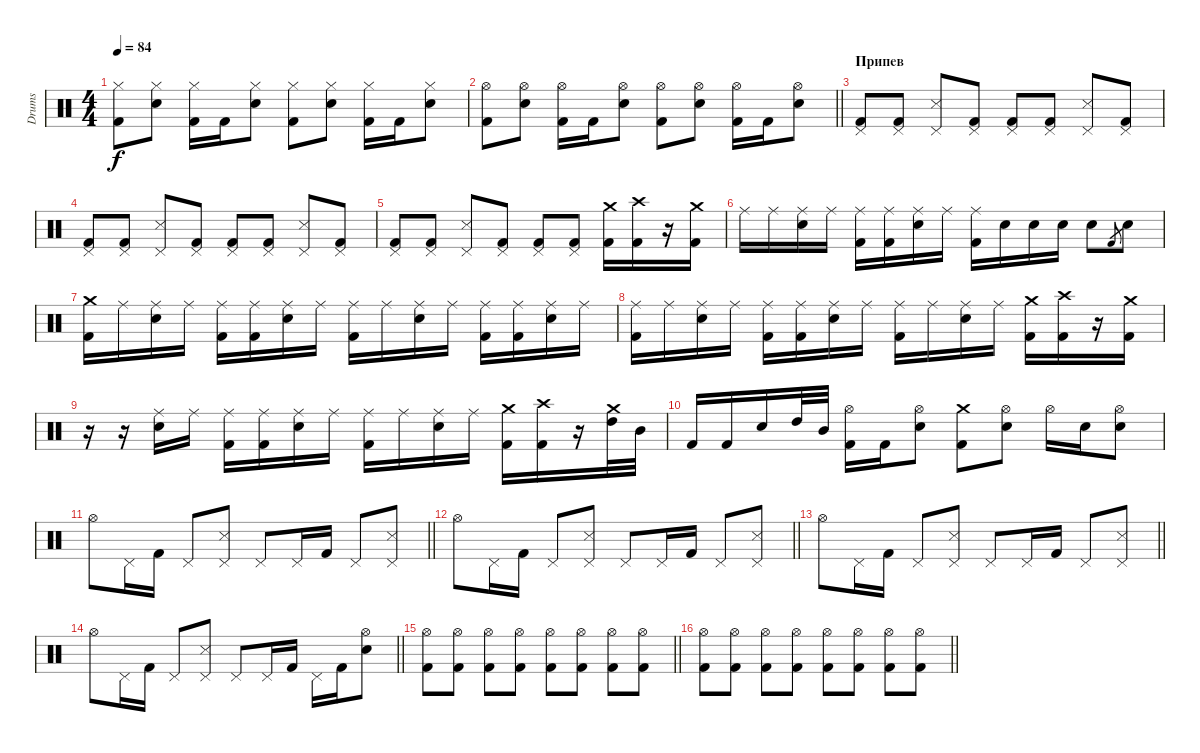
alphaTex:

\track ("Drums" "Drums") {instrument percussion}
\staff {score}
\articulation defaults
\ts (4 4)
\tempo 84
\clef neutral
\ks c
("Hi-Hat (closed)" "Kick (hit) 2").8{dy f} ("Hi-Hat (closed)" "Snare (hit) 2").8 ("Hi-Hat (closed)" "Kick (hit) 2").16 "Kick (hit) 2".16 ("Hi-Hat (closed)" "Snare (hit) 2").8 ("Hi-Hat (closed)" "Kick (hit) 2").8 ("Hi-Hat (closed)" "Snare (hit) 2").8 ("Hi-Hat (closed)" "Kick (hit) 2").16 "Kick (hit) 2".16 ("Hi-Hat (closed)" "Snare (hit) 2").8 |
\barLineRight lightlight
("Hi-Hat (open)" "Kick (hit) 2").8 ("Hi-Hat (open)" "Snare (hit) 2").8 ("Hi-Hat (open)" "Kick (hit) 2").16 "Kick (hit) 2".16 ("Hi-Hat (open)" "Snare (hit) 2").8 ("Hi-Hat (open)" "Kick (hit) 2").8 ("Hi-Hat (open)" "Snare (hit) 2").8 ("Hi-Hat (open)" "Kick (hit) 2").16 "Kick (hit) 2".16 ("Hi-Hat (open)" "Snare (hit) 2").8 |
\section ("" "Припев")
("Pedal Hi-Hat (hit)" "Kick (hit) 2").8 ("Pedal Hi-Hat (hit)" "Kick (hit) 2").8 ("Pedal Hi-Hat (hit)" "Snare (side stick) 3").8 ("Pedal Hi-Hat (hit)" "Kick (hit) 2").8 ("Pedal Hi-Hat (hit)" "Kick (hit) 2").8 ("Pedal Hi-Hat (hit)" "Kick (hit) 2").8 ("Pedal Hi-Hat (hit)" "Snare (side stick) 3").8 ("Pedal Hi-Hat (hit)" "Kick (hit) 2").8 |
("Pedal Hi-Hat (hit)" "Kick (hit) 2").8 ("Pedal Hi-Hat (hit)" "Kick (hit) 2").8 ("Pedal Hi-Hat (hit)" "Snare (side stick) 3").8 ("Pedal Hi-Hat (hit)" "Kick (hit) 2").8 ("Pedal Hi-Hat (hit)" "Kick (hit) 2").8 ("Pedal Hi-Hat (hit)" "Kick (hit) 2").8 ("Pedal Hi-Hat (hit)" "Snare (side stick) 3").8 ("Pedal Hi-Hat (hit)" "Kick (hit) 2").8 |
("Pedal Hi-Hat (hit)" "Kick (hit) 2").8 ("Pedal Hi-Hat (hit)" "Kick (hit) 2").8 ("Pedal Hi-Hat (hit)" "Snare (side stick) 3").8 ("Pedal Hi-Hat (hit)" "Kick (hit) 2").8 ("Pedal Hi-Hat (hit)" "Kick (hit) 2").8 ("Pedal Hi-Hat (hit)" "Kick (hit) 2").8 ("Crash medium (hit)" "Kick (hit) 2").16 ("Crash high (hit)" "Kick (hit) 2").16 r.16 ("Crash medium (hit)" "Kick (hit) 2").16 |
"Ride (middle)".16 "Ride (middle)".16 ("Ride (middle)" "Snare (hit) 2").16 "Ride (middle)".16 ("Ride (middle)" "Kick (hit) 2").16 ("Ride (middle)" "Kick (hit) 2").16 ("Ride (middle)" "Snare (hit) 2").16 "Ride (middle)".16 ("Ride (middle)" "Kick (hit) 2").16 "Snare (hit) 2".16 "Snare (hit) 2".16 "Snare (hit) 2".16 "Snare (hit) 2".8 "Kick (hit) 2".8{gr} "Snare (hit) 2".8 |
("Crash medium (hit)" "Kick (hit) 2").16 "Ride (middle)".16 ("Ride (middle)" "Snare (hit) 2").16 "Ride (middle)".16 ("Ride (middle)" "Kick (hit) 2").16 ("Ride (middle)" "Kick (hit) 2").16 ("Ride (middle)" "Snare (hit) 2").16 "Ride (middle)".16 ("Ride (middle)" "Kick (hit) 2").16 "Ride (middle)".16 ("Ride (middle)" "Snare (hit) 2").16 "Ride (middle)".16 ("Ride (middle)" "Kick (hit) 2").16 ("Ride (middle)" "Kick (hit) 2").16 ("Ride (middle)" "Snare (hit) 2").16 "Ride (middle)".16 |
("Ride (middle)" "Kick (hit) 2").16 "Ride (middle)".16 ("Ride (middle)" "Snare (hit) 2").16 "Ride (middle)".16 ("Ride (middle)" "Kick (hit) 2").16 ("Ride (middle)" "Kick (hit) 2").16 ("Ride (middle)" "Snare (hit) 2").16 "Ride (middle)".16 ("Ride (middle)" "Kick (hit) 2").16 "Ride (middle)".16 ("Ride (middle)" "Snare (hit) 2").16 "Ride (middle)".16 ("Crash medium (hit)" "Kick (hit) 2").16 ("Crash high (hit)" "Kick (hit) 2").16 r.16 ("Crash medium (hit)" "Kick (hit) 2").16 |
r.16 r.16 ("Ride (middle)" "Snare (hit) 2").16 "Ride (middle)".16 ("Ride (middle)" "Kick (hit) 2").16 ("Ride (middle)" "Kick (hit) 2").16 ("Ride (middle)" "Snare (hit) 2").16 "Ride (middle)".16 ("Ride (middle)" "Kick (hit) 2").16 "Ride (middle)".16 ("Ride (middle)" "Snare (hit) 2").16 "Ride (middle)".16 ("Crash medium (hit)" "Kick (hit) 2").16 ("Crash high (hit)" "Kick (hit) 2").16 r.16 ("Crash medium (hit)" "High Tom (hit)").32 "Mid Tom (hit)".32 |
"Kick (hit) 2".16 "Kick (hit) 2".16 "Snare (hit) 2".16 "High Tom (hit)".32 "Mid Tom (hit)".32 ("Hi-Hat (open)" "Kick (hit) 2").16 "Kick (hit) 2".16 ("Hi-Hat (open)" "Snare (hit) 2").8 ("Crash medium (hit)" "Kick (hit) 2").8 ("Hi-Hat (open)" "Snare (hit) 2").8 "Hi-Hat (open)".16 "Snare (hit) 2".16 ("Hi-Hat (open)" "Snare (hit) 2").8 |
\barLineRight lightlight "Hi-Hat (open)".8 "Pedal Hi-Hat (hit)".16 "Kick (hit) 2".16 "Pedal Hi-Hat (hit)".8
("Pedal Hi-Hat (hit)" "Snare (side stick) 3").8 "Pedal Hi-Hat (hit)".8 "Pedal Hi-Hat (hit)".16 "Kick (hit) 2".16 "Pedal Hi-Hat (hit)".8 ("Pedal Hi-Hat (hit)" "Snare (side stick) 3").8 |
\barLineRight lightlight "Hi-Hat (open)".8 "Pedal Hi-Hat (hit)".16 "Kick (hit) 2".16 "Pedal Hi-Hat (hit)".8
("Pedal Hi-Hat (hit)" "Snare (side stick) 3").8 "Pedal Hi-Hat (hit)".8 "Pedal Hi-Hat (hit)".16 "Kick (hit) 2".16 "Pedal Hi-Hat (hit)".8 ("Pedal Hi-Hat (hit)" "Snare (side stick) 3").8 |
\barLineRight lightlight "Hi-Hat (open)".8 "Pedal Hi-Hat (hit)".16 "Kick (hit) 2".16 "Pedal Hi-Hat (hit)".8
("Pedal Hi-Hat (hit)" "Snare (side stick) 3").8 "Pedal Hi-Hat (hit)".8 "Pedal Hi-Hat (hit)".16 "Kick (hit) 2".16 "Pedal Hi-Hat (hit)".8 ("Pedal Hi-Hat (hit)" "Snare (side stick) 3").8 |
\barLineRight lightlight "Hi-Hat (open)".8 "Pedal Hi-Hat (hit)".16 "Kick (hit) 2".16 "Pedal Hi-Hat (hit)".8
("Pedal Hi-Hat (hit)" "Snare (side stick) 3").8 "Pedal Hi-Hat (hit)".8 "Pedal Hi-Hat (hit)".16 "Kick (hit) 2".16 "Pedal Hi-Hat (hit)".16 "Kick (hit) 2".16 ("Hi-Hat (open)" "Snare (hit) 2").8 |
\barLineRight lightlight
("Hi-Hat (open)" "Kick (hit) 2").8 ("Hi-Hat (open)" "Kick (hit) 2").8 ("Hi-Hat (open)" "Kick (hit) 2").8 ("Hi-Hat (open)" "Kick (hit) 2").8 ("Hi-Hat (open)" "Kick (hit) 2").8 ("Hi-Hat (open)" "Kick (hit) 2").8 ("Hi-Hat (open)" "Kick (hit) 2").8 ("Hi-Hat (open)" "Kick (hit) 2").8 |
\barLineRight lightlight
("Hi-Hat (open)" "Kick (hit) 2").8 ("Hi-Hat (open)" "Kick (hit) 2").8 ("Hi-Hat (open)" "Kick (hit) 2").8 ("Hi-Hat (open)" "Kick (hit) 2").8 ("Hi-Hat (open)" "Kick (hit) 2").8 ("Hi-Hat (open)" "Kick (hit) 2").8 ("Hi-Hat (open)" "Kick (hit) 2").8 ("Hi-Hat (open)" "Kick (hit) 2").8
